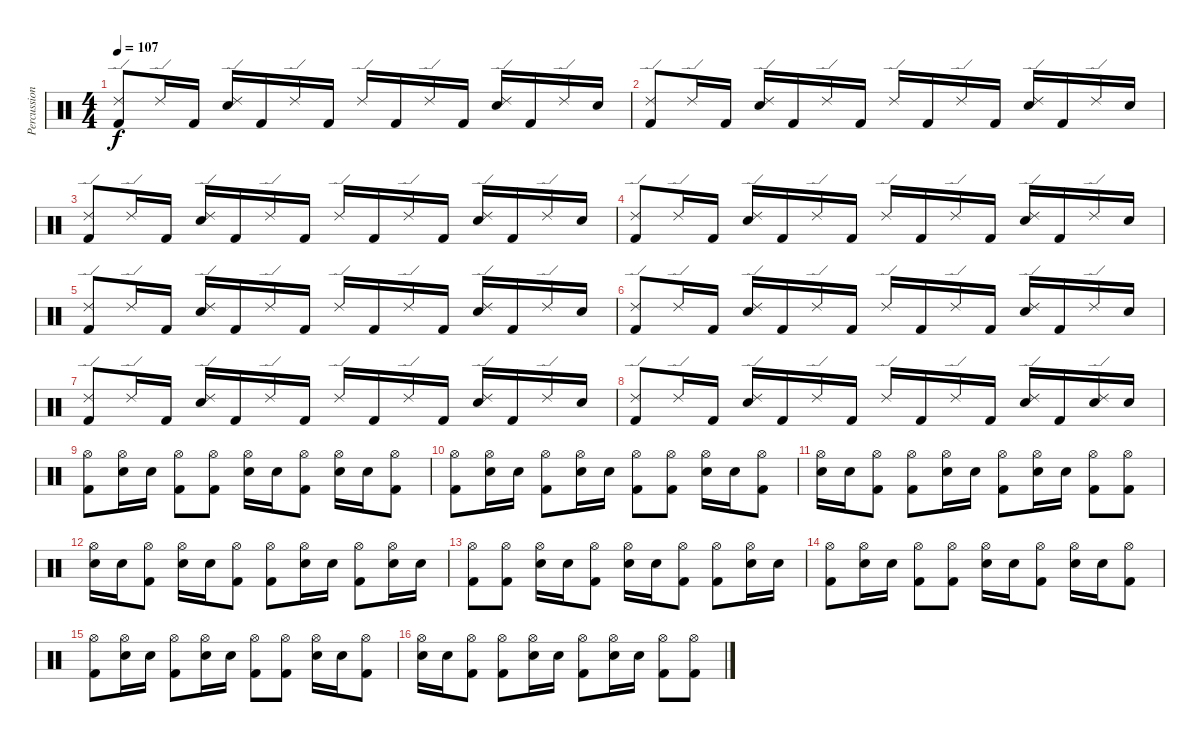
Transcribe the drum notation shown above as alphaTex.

\track ("Percussion" "Percussion") {instrument percussion}
\staff {score}
\articulation defaults
\ts (4 4)
\tempo 107
\clef neutral
\ks c
("Ride (edge) 2" "Kick (hit) 2").8{dy f} "Ride (edge) 2".16 "Kick (hit) 2".16 ("Ride (edge) 2" "Electric Snare (hit)").16 "Kick (hit) 2".16 "Ride (edge) 2".16 "Kick (hit) 2".16 "Ride (edge) 2".16 "Kick (hit) 2".16 "Ride (edge) 2".16 "Kick (hit) 2".16 ("Ride (edge) 2" "Electric Snare (hit)").16 "Kick (hit) 2".16 "Ride (edge) 2".16 "Electric Snare (hit)".16 |
("Ride (edge) 2" "Kick (hit) 2").8 "Ride (edge) 2".16 "Kick (hit) 2".16 ("Ride (edge) 2" "Electric Snare (hit)").16 "Kick (hit) 2".16 "Ride (edge) 2".16 "Kick (hit) 2".16 "Ride (edge) 2".16 "Kick (hit) 2".16 "Ride (edge) 2".16 "Kick (hit) 2".16 ("Ride (edge) 2" "Electric Snare (hit)").16 "Kick (hit) 2".16 "Ride (edge) 2".16 "Electric Snare (hit)".16 |
("Ride (edge) 2" "Kick (hit) 2").8 "Ride (edge) 2".16 "Kick (hit) 2".16 ("Ride (edge) 2" "Electric Snare (hit)").16 "Kick (hit) 2".16 "Ride (edge) 2".16 "Kick (hit) 2".16 "Ride (edge) 2".16 "Kick (hit) 2".16 "Ride (edge) 2".16 "Kick (hit) 2".16 ("Ride (edge) 2" "Electric Snare (hit)").16 "Kick (hit) 2".16 "Ride (edge) 2".16 "Electric Snare (hit)".16 |
("Ride (edge) 2" "Kick (hit) 2").8 "Ride (edge) 2".16 "Kick (hit) 2".16 ("Ride (edge) 2" "Electric Snare (hit)").16 "Kick (hit) 2".16 "Ride (edge) 2".16 "Kick (hit) 2".16 "Ride (edge) 2".16 "Kick (hit) 2".16 "Ride (edge) 2".16 "Kick (hit) 2".16 ("Ride (edge) 2" "Electric Snare (hit)").16 "Kick (hit) 2".16 "Ride (edge) 2".16 "Electric Snare (hit)".16 |
("Ride (edge) 2" "Kick (hit) 2").8 "Ride (edge) 2".16 "Kick (hit) 2".16 ("Ride (edge) 2" "Electric Snare (hit)").16 "Kick (hit) 2".16 "Ride (edge) 2".16 "Kick (hit) 2".16 "Ride (edge) 2".16 "Kick (hit) 2".16 "Ride (edge) 2".16 "Kick (hit) 2".16 ("Ride (edge) 2" "Electric Snare (hit)").16 "Kick (hit) 2".16 "Ride (edge) 2".16 "Electric Snare (hit)".16 |
("Ride (edge) 2" "Kick (hit) 2").8 "Ride (edge) 2".16 "Kick (hit) 2".16 ("Ride (edge) 2" "Electric Snare (hit)").16 "Kick (hit) 2".16 "Ride (edge) 2".16 "Kick (hit) 2".16 "Ride (edge) 2".16 "Kick (hit) 2".16 "Ride (edge) 2".16 "Kick (hit) 2".16 ("Ride (edge) 2" "Electric Snare (hit)").16 "Kick (hit) 2".16 "Ride (edge) 2".16 "Electric Snare (hit)".16 |
("Ride (edge) 2" "Kick (hit) 2").8 "Ride (edge) 2".16 "Kick (hit) 2".16 ("Ride (edge) 2" "Electric Snare (hit)").16 "Kick (hit) 2".16 "Ride (edge) 2".16 "Kick (hit) 2".16 "Ride (edge) 2".16 "Kick (hit) 2".16 "Ride (edge) 2".16 "Kick (hit) 2".16 ("Ride (edge) 2" "Electric Snare (hit)").16 "Kick (hit) 2".16 "Ride (edge) 2".16 "Electric Snare (hit)".16 |
("Ride (edge) 2" "Kick (hit) 2").8 "Ride (edge) 2".16 "Kick (hit) 2".16 ("Ride (edge) 2" "Electric Snare (hit)").16 "Kick (hit) 2".16 "Ride (edge) 2".16 "Kick (hit) 2".16 "Ride (edge) 2".16 "Kick (hit) 2".16 "Ride (edge) 2".16 "Kick (hit) 2".16 ("Ride (edge) 2" "Electric Snare (hit)").16 "Kick (hit) 2".16 ("Ride (edge) 2" "Electric Snare (hit)").16 "Electric Snare (hit)".16 |
("Hi-Hat (open)" "Kick (hit) 2").8 ("Hi-Hat (open)" "Electric Snare (hit)").16 "Electric Snare (hit)".16 ("Hi-Hat (open)" "Kick (hit) 2").8 ("Hi-Hat (open)" "Kick (hit) 2").8 ("Hi-Hat (open)" "Electric Snare (hit)").16 "Electric Snare (hit)".16 ("Hi-Hat (open)" "Kick (hit) 2").8 ("Hi-Hat (open)" "Electric Snare (hit)").16 "Electric Snare (hit)".16 ("Hi-Hat (open)" "Kick (hit) 2").8 |
("Hi-Hat (open)" "Kick (hit) 2").8 ("Hi-Hat (open)" "Electric Snare (hit)").16 "Electric Snare (hit)".16 ("Hi-Hat (open)" "Kick (hit) 2").8 ("Hi-Hat (open)" "Electric Snare (hit)").16 "Electric Snare (hit)".16 ("Hi-Hat (open)" "Kick (hit) 2").8 ("Hi-Hat (open)" "Kick (hit) 2").8 ("Hi-Hat (open)" "Electric Snare (hit)").16 "Electric Snare (hit)".16 ("Hi-Hat (open)" "Kick (hit) 2").8 |
("Hi-Hat (open)" "Electric Snare (hit)").16 "Electric Snare (hit)".16 ("Hi-Hat (open)" "Kick (hit) 2").8 ("Hi-Hat (open)" "Kick (hit) 2").8 ("Hi-Hat (open)" "Electric Snare (hit)").16 "Electric Snare (hit)".16 ("Hi-Hat (open)" "Kick (hit) 2").8 ("Hi-Hat (open)" "Electric Snare (hit)").16 "Electric Snare (hit)".16 ("Hi-Hat (open)" "Kick (hit) 2").8 ("Hi-Hat (open)" "Kick (hit) 2").8 |
("Hi-Hat (open)" "Electric Snare (hit)").16 "Electric Snare (hit)".16 ("Hi-Hat (open)" "Kick (hit) 2").8 ("Hi-Hat (open)" "Electric Snare (hit)").16 "Electric Snare (hit)".16 ("Hi-Hat (open)" "Kick (hit) 2").8 ("Hi-Hat (open)" "Kick (hit) 2").8 ("Hi-Hat (open)" "Electric Snare (hit)").16 "Electric Snare (hit)".16 ("Hi-Hat (open)" "Kick (hit) 2").8 ("Hi-Hat (open)" "Electric Snare (hit)").16 "Electric Snare (hit)".16 |
("Hi-Hat (open)" "Kick (hit) 2").8 ("Hi-Hat (open)" "Kick (hit) 2").8 ("Hi-Hat (open)" "Electric Snare (hit)").16 "Electric Snare (hit)".16 ("Hi-Hat (open)" "Kick (hit) 2").8 ("Hi-Hat (open)" "Electric Snare (hit)").16 "Electric Snare (hit)".16 ("Hi-Hat (open)" "Kick (hit) 2").8 ("Hi-Hat (open)" "Kick (hit) 2").8 ("Hi-Hat (open)" "Electric Snare (hit)").16 "Electric Snare (hit)".16 |
("Hi-Hat (open)" "Kick (hit) 2").8 ("Hi-Hat (open)" "Electric Snare (hit)").16 "Electric Snare (hit)".16 ("Hi-Hat (open)" "Kick (hit) 2").8 ("Hi-Hat (open)" "Kick (hit) 2").8 ("Hi-Hat (open)" "Electric Snare (hit)").16 "Electric Snare (hit)".16 ("Hi-Hat (open)" "Kick (hit) 2").8 ("Hi-Hat (open)" "Electric Snare (hit)").16 "Electric Snare (hit)".16 ("Hi-Hat (open)" "Kick (hit) 2").8 |
("Hi-Hat (open)" "Kick (hit) 2").8 ("Hi-Hat (open)" "Electric Snare (hit)").16 "Electric Snare (hit)".16 ("Hi-Hat (open)" "Kick (hit) 2").8 ("Hi-Hat (open)" "Electric Snare (hit)").16 "Electric Snare (hit)".16 ("Hi-Hat (open)" "Kick (hit) 2").8 ("Hi-Hat (open)" "Kick (hit) 2").8 ("Hi-Hat (open)" "Electric Snare (hit)").16 "Electric Snare (hit)".16 ("Hi-Hat (open)" "Kick (hit) 2").8 |
("Hi-Hat (open)" "Electric Snare (hit)").16 "Electric Snare (hit)".16 ("Hi-Hat (open)" "Kick (hit) 2").8 ("Hi-Hat (open)" "Kick (hit) 2").8 ("Hi-Hat (open)" "Electric Snare (hit)").16 "Electric Snare (hit)".16 ("Hi-Hat (open)" "Kick (hit) 2").8 ("Hi-Hat (open)" "Electric Snare (hit)").16 "Electric Snare (hit)".16 ("Hi-Hat (open)" "Kick (hit) 2").8 ("Hi-Hat (open)" "Kick (hit) 2").8
